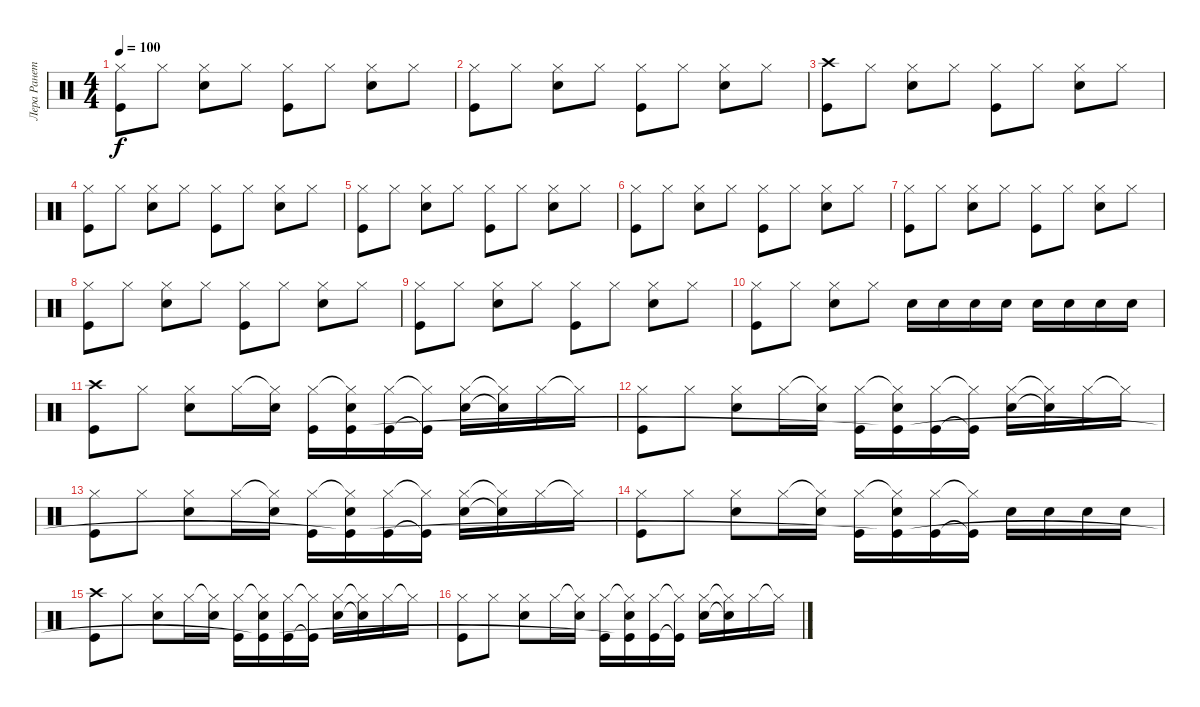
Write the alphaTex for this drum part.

\track ("Лера Ранетка" "Лера Ранет") {instrument percussion}
\staff {score}
\articulation defaults
\ts (4 4)
\tempo 100
\clef neutral
\ks c
("Hi-Hat (closed)" "Kick (hit)").8{dy f} "Hi-Hat (closed)".8 ("Hi-Hat (closed)" "Electric Snare (hit)").8 "Hi-Hat (closed)".8 ("Hi-Hat (closed)" "Kick (hit)").8 "Hi-Hat (closed)".8 ("Hi-Hat (closed)" "Electric Snare (hit)").8 "Hi-Hat (closed)".8 |
("Hi-Hat (closed)" "Kick (hit)").8 "Hi-Hat (closed)".8 ("Hi-Hat (closed)" "Electric Snare (hit)").8 "Hi-Hat (closed)".8 ("Hi-Hat (closed)" "Kick (hit)").8 "Hi-Hat (closed)".8 ("Hi-Hat (closed)" "Electric Snare (hit)").8 "Hi-Hat (closed)".8 |
("Crash high (hit)" "Kick (hit)").8 "Hi-Hat (closed)".8 ("Hi-Hat (closed)" "Electric Snare (hit)").8 "Hi-Hat (closed)".8 ("Hi-Hat (closed)" "Kick (hit)").8 "Hi-Hat (closed)".8 ("Hi-Hat (closed)" "Electric Snare (hit)").8 "Hi-Hat (closed)".8 |
("Hi-Hat (closed)" "Kick (hit)").8 "Hi-Hat (closed)".8 ("Hi-Hat (closed)" "Electric Snare (hit)").8 "Hi-Hat (closed)".8 ("Hi-Hat (closed)" "Kick (hit)").8 "Hi-Hat (closed)".8 ("Hi-Hat (closed)" "Electric Snare (hit)").8 "Hi-Hat (closed)".8 |
("Hi-Hat (closed)" "Kick (hit)").8 "Hi-Hat (closed)".8 ("Hi-Hat (closed)" "Electric Snare (hit)").8 "Hi-Hat (closed)".8 ("Hi-Hat (closed)" "Kick (hit)").8 "Hi-Hat (closed)".8 ("Hi-Hat (closed)" "Electric Snare (hit)").8 "Hi-Hat (closed)".8 |
("Hi-Hat (closed)" "Kick (hit)").8 "Hi-Hat (closed)".8 ("Hi-Hat (closed)" "Electric Snare (hit)").8 "Hi-Hat (closed)".8 ("Hi-Hat (closed)" "Kick (hit)").8 "Hi-Hat (closed)".8 ("Hi-Hat (closed)" "Electric Snare (hit)").8 "Hi-Hat (closed)".8 |
("Hi-Hat (closed)" "Kick (hit)").8 "Hi-Hat (closed)".8 ("Hi-Hat (closed)" "Electric Snare (hit)").8 "Hi-Hat (closed)".8 ("Hi-Hat (closed)" "Kick (hit)").8 "Hi-Hat (closed)".8 ("Hi-Hat (closed)" "Electric Snare (hit)").8 "Hi-Hat (closed)".8 |
("Hi-Hat (closed)" "Kick (hit)").8 "Hi-Hat (closed)".8 ("Hi-Hat (closed)" "Electric Snare (hit)").8 "Hi-Hat (closed)".8 ("Hi-Hat (closed)" "Kick (hit)").8 "Hi-Hat (closed)".8 ("Hi-Hat (closed)" "Electric Snare (hit)").8 "Hi-Hat (closed)".8 |
("Hi-Hat (closed)" "Kick (hit)").8 "Hi-Hat (closed)".8 ("Hi-Hat (closed)" "Electric Snare (hit)").8 "Hi-Hat (closed)".8 ("Hi-Hat (closed)" "Kick (hit)").8 "Hi-Hat (closed)".8 ("Hi-Hat (closed)" "Electric Snare (hit)").8 "Hi-Hat (closed)".8 |
("Hi-Hat (closed)" "Kick (hit)").8 "Hi-Hat (closed)".8 ("Hi-Hat (closed)" "Electric Snare (hit)").8 "Hi-Hat (closed)".8 "Electric Snare (hit)".16 "Electric Snare (hit)".16 "Electric Snare (hit)".16 "Electric Snare (hit)".16 "Electric Snare (hit)".16 "Electric Snare (hit)".16 "Electric Snare (hit)".16 "Electric Snare (hit)".16 |
("Crash high (hit)" "Kick (hit)").8 "Hi-Hat (closed)".8 ("Hi-Hat (closed)" "Electric Snare (hit)").8 "Hi-Hat (closed)".16 ("Hi-Hat (closed)"{t} "Electric Snare (hit)").16 ("Hi-Hat (closed)" "Kick (hit)").16 ("Hi-Hat (closed)"{t} "Electric Snare (hit)" "Kick (hit)").16 ("Hi-Hat (closed)" "Kick (hit)").16 ("Hi-Hat (closed)"{t} "Kick (hit)"{t}).16 ("Hi-Hat (closed)" "Electric Snare (hit)").16 ("Hi-Hat (closed)"{t} "Electric Snare (hit)"{t}).16 "Hi-Hat (closed)".16 "Hi-Hat (closed)"{t}.16 |
("Hi-Hat (closed)" "Kick (hit)").8 "Hi-Hat (closed)".8 ("Hi-Hat (closed)" "Electric Snare (hit)").8 "Hi-Hat (closed)".16 ("Hi-Hat (closed)"{t} "Electric Snare (hit)").16 ("Hi-Hat (closed)" "Kick (hit)").16 ("Hi-Hat (closed)"{t} "Electric Snare (hit)" "Kick (hit)"{t}).16 ("Hi-Hat (closed)" "Kick (hit)").16 ("Hi-Hat (closed)"{t} "Kick (hit)"{t}).16 ("Hi-Hat (closed)" "Electric Snare (hit)").16 ("Hi-Hat (closed)"{t} "Electric Snare (hit)"{t}).16 "Hi-Hat (closed)".16 "Hi-Hat (closed)"{t}.16 |
("Hi-Hat (closed)" "Kick (hit)").8 "Hi-Hat (closed)".8 ("Hi-Hat (closed)" "Electric Snare (hit)").8 "Hi-Hat (closed)".16 ("Hi-Hat (closed)"{t} "Electric Snare (hit)").16 ("Hi-Hat (closed)" "Kick (hit)").16 ("Hi-Hat (closed)"{t} "Electric Snare (hit)" "Kick (hit)"{t}).16 ("Hi-Hat (closed)" "Kick (hit)").16 ("Hi-Hat (closed)"{t} "Kick (hit)"{t}).16 ("Hi-Hat (closed)" "Electric Snare (hit)").16 ("Hi-Hat (closed)"{t} "Electric Snare (hit)"{t}).16 "Hi-Hat (closed)".16 "Hi-Hat (closed)"{t}.16 |
("Hi-Hat (closed)" "Kick (hit)").8 "Hi-Hat (closed)".8 ("Hi-Hat (closed)" "Electric Snare (hit)").8 "Hi-Hat (closed)".16 ("Hi-Hat (closed)"{t} "Electric Snare (hit)").16 ("Hi-Hat (closed)" "Kick (hit)").16 ("Hi-Hat (closed)"{t} "Electric Snare (hit)" "Kick (hit)"{t}).16 ("Hi-Hat (closed)" "Kick (hit)").16 ("Hi-Hat (closed)"{t} "Kick (hit)"{t}).16 "Electric Snare (hit)".16 "Electric Snare (hit)".16 "Electric Snare (hit)".16 "Electric Snare (hit)".16 |
("Crash high (hit)" "Kick (hit)").8 "Hi-Hat (closed)".8 ("Hi-Hat (closed)" "Electric Snare (hit)").8 "Hi-Hat (closed)".16 ("Hi-Hat (closed)"{t} "Electric Snare (hit)").16 ("Hi-Hat (closed)" "Kick (hit)").16 ("Hi-Hat (closed)"{t} "Electric Snare (hit)" "Kick (hit)"{t}).16 ("Hi-Hat (closed)" "Kick (hit)").16 ("Hi-Hat (closed)"{t} "Kick (hit)"{t}).16 ("Hi-Hat (closed)" "Electric Snare (hit)").16 ("Hi-Hat (closed)"{t} "Electric Snare (hit)"{t}).16 "Hi-Hat (closed)".16 "Hi-Hat (closed)"{t}.16 |
("Hi-Hat (closed)" "Kick (hit)").8 "Hi-Hat (closed)".8 ("Hi-Hat (closed)" "Electric Snare (hit)").8 "Hi-Hat (closed)".16 ("Hi-Hat (closed)"{t} "Electric Snare (hit)").16 ("Hi-Hat (closed)" "Kick (hit)").16 ("Hi-Hat (closed)"{t} "Electric Snare (hit)" "Kick (hit)"{t}).16 ("Hi-Hat (closed)" "Kick (hit)").16 ("Hi-Hat (closed)"{t} "Kick (hit)"{t}).16 ("Hi-Hat (closed)" "Electric Snare (hit)").16 ("Hi-Hat (closed)"{t} "Electric Snare (hit)"{t}).16 "Hi-Hat (closed)".16 "Hi-Hat (closed)"{t}.16
